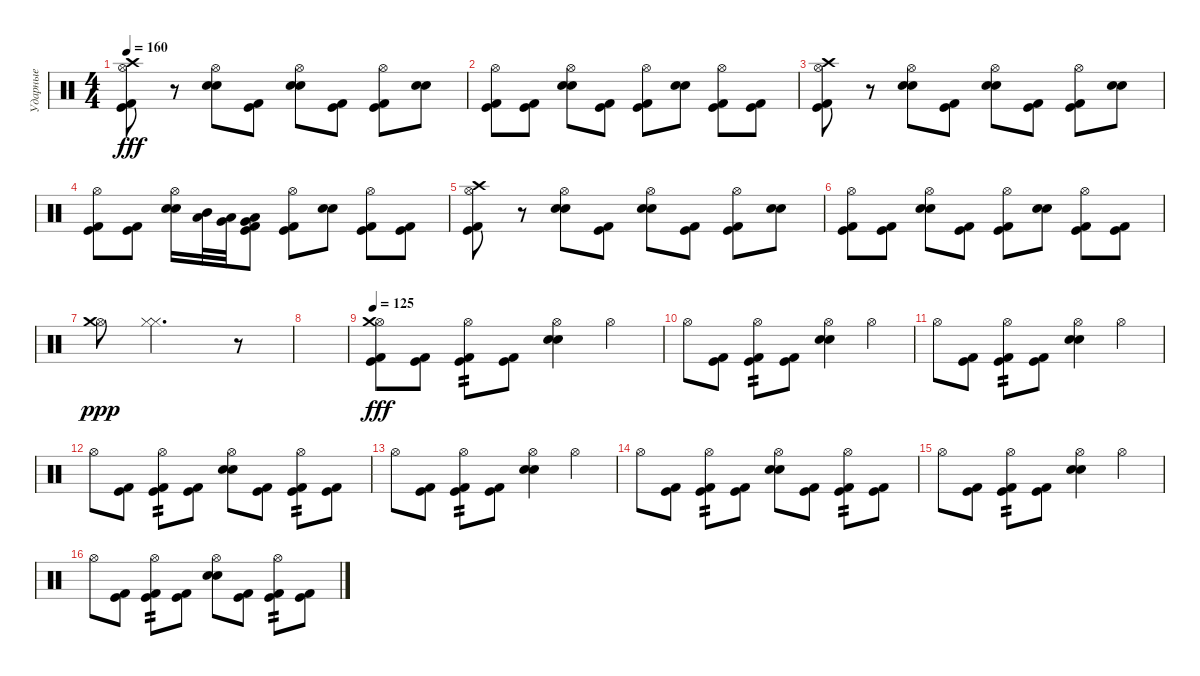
\track ("Ударные" "Ударные") {instrument percussion}
\staff {score}
\articulation defaults
\ts (4 4)
\tempo 160
\clef neutral
\ks c
("Kick (hit) 2" "Kick (hit)" "Hi-Hat (open)" "Crash high (hit)").8{dy fff} r.8 ("Snare (hit) 2" "Electric Snare (hit)" "Hi-Hat (open)").8 ("Kick (hit) 2" "Kick (hit)").8 ("Snare (hit) 2" "Electric Snare (hit)" "Hi-Hat (open)").8 ("Kick (hit) 2" "Kick (hit)").8 ("Kick (hit) 2" "Kick (hit)" "Hi-Hat (open)").8 ("Snare (hit) 2" "Electric Snare (hit)").8 |
("Kick (hit) 2" "Kick (hit)" "Hi-Hat (open)").8 ("Kick (hit) 2" "Kick (hit)").8 ("Snare (hit) 2" "Electric Snare (hit)" "Hi-Hat (open)").8 ("Kick (hit) 2" "Kick (hit)").8 ("Kick (hit) 2" "Kick (hit)" "Hi-Hat (open)").8 ("Snare (hit) 2" "Electric Snare (hit)").8 ("Kick (hit) 2" "Kick (hit)" "Hi-Hat (open)").8 ("Kick (hit) 2" "Kick (hit)").8 |
("Kick (hit) 2" "Kick (hit)" "Hi-Hat (open)" "Crash high (hit)").8 r.8 ("Snare (hit) 2" "Electric Snare (hit)" "Hi-Hat (open)").8 ("Kick (hit) 2" "Kick (hit)").8 ("Snare (hit) 2" "Electric Snare (hit)" "Hi-Hat (open)").8 ("Kick (hit) 2" "Kick (hit)").8 ("Kick (hit) 2" "Kick (hit)" "Hi-Hat (open)").8 ("Snare (hit) 2" "Electric Snare (hit)").8 |
("Kick (hit) 2" "Kick (hit)" "Hi-Hat (open)").8 ("Kick (hit) 2" "Kick (hit)").8 ("Snare (hit) 2" "Electric Snare (hit)" "Hi-Hat (open)").16 ("Low Tom (hit)" "Mid Tom (hit)").32 ("Very Low Tom (hit)" "Low Tom (hit)").32 ("Kick (hit) 2" "Kick (hit)" "Low Floor Tom (hit)" "Very Low Tom (hit)").8 ("Kick (hit) 2" "Kick (hit)" "Hi-Hat (open)").8 ("Snare (hit) 2" "Electric Snare (hit)").8 ("Kick (hit) 2" "Kick (hit)" "Hi-Hat (open)").8 ("Kick (hit) 2" "Kick (hit)").8 |
("Kick (hit) 2" "Kick (hit)" "Hi-Hat (open)" "Crash high (hit)").8 r.8 ("Snare (hit) 2" "Electric Snare (hit)" "Hi-Hat (open)").8 ("Kick (hit) 2" "Kick (hit)").8 ("Snare (hit) 2" "Electric Snare (hit)" "Hi-Hat (open)").8 ("Kick (hit) 2" "Kick (hit)").8 ("Kick (hit) 2" "Kick (hit)" "Hi-Hat (open)").8 ("Snare (hit) 2" "Electric Snare (hit)").8 |
("Kick (hit) 2" "Kick (hit)" "Hi-Hat (open)").8 ("Kick (hit) 2" "Kick (hit)").8 ("Snare (hit) 2" "Electric Snare (hit)" "Hi-Hat (open)").8 ("Kick (hit) 2" "Kick (hit)").8 ("Kick (hit) 2" "Kick (hit)" "Hi-Hat (open)").8 ("Snare (hit) 2" "Electric Snare (hit)").8 ("Kick (hit) 2" "Kick (hit)" "Hi-Hat (open)").8 ("Kick (hit) 2" "Kick (hit)").8 |
("Hi-Hat (open)" "Crash medium (hit)").8{dy ppp} ("Hi-Hat (closed)" "Hi-Hat (closed)").2{d} r.8 |
|
\tempo 125
("Kick (hit)" "Kick (hit) 2" "Hi-Hat (open)" "Crash medium (hit)").8{dy fff} ("Kick (hit)" "Kick (hit) 2").8 ("Kick (hit)" "Kick (hit) 2" "Hi-Hat (open)").8{tp 2} ("Kick (hit)" "Kick (hit) 2").8 ("Electric Snare (hit)" "Snare (hit) 2" "Hi-Hat (open)").4 "Hi-Hat (open)".4 |
"Hi-Hat (open)".8 ("Kick (hit)" "Kick (hit) 2").8 ("Kick (hit)" "Kick (hit) 2" "Hi-Hat (open)").8{tp 2} ("Kick (hit)" "Kick (hit) 2").8 ("Electric Snare (hit)" "Snare (hit) 2" "Hi-Hat (open)").4 "Hi-Hat (open)".4 |
"Hi-Hat (open)".8 ("Kick (hit)" "Kick (hit) 2").8 ("Kick (hit)" "Kick (hit) 2" "Hi-Hat (open)").8{tp 2} ("Kick (hit)" "Kick (hit) 2").8 ("Electric Snare (hit)" "Snare (hit) 2" "Hi-Hat (open)").4 "Hi-Hat (open)".4 |
"Hi-Hat (open)".8 ("Kick (hit)" "Kick (hit) 2").8 ("Kick (hit)" "Kick (hit) 2" "Hi-Hat (open)").8{tp 2} ("Kick (hit)" "Kick (hit) 2").8 ("Electric Snare (hit)" "Snare (hit) 2" "Hi-Hat (open)").8 ("Kick (hit)" "Kick (hit) 2").8 ("Kick (hit)" "Kick (hit) 2" "Hi-Hat (open)").8{tp 2} ("Kick (hit)" "Kick (hit) 2").8 |
"Hi-Hat (open)".8 ("Kick (hit)" "Kick (hit) 2").8 ("Kick (hit)" "Kick (hit) 2" "Hi-Hat (open)").8{tp 2} ("Kick (hit)" "Kick (hit) 2").8 ("Electric Snare (hit)" "Snare (hit) 2" "Hi-Hat (open)").4 "Hi-Hat (open)".4 |
"Hi-Hat (open)".8 ("Kick (hit)" "Kick (hit) 2").8 ("Kick (hit)" "Kick (hit) 2" "Hi-Hat (open)").8{tp 2} ("Kick (hit)" "Kick (hit) 2").8 ("Electric Snare (hit)" "Snare (hit) 2" "Hi-Hat (open)").8 ("Kick (hit)" "Kick (hit) 2").8 ("Kick (hit)" "Kick (hit) 2" "Hi-Hat (open)").8{tp 2} ("Kick (hit)" "Kick (hit) 2").8 |
"Hi-Hat (open)".8 ("Kick (hit)" "Kick (hit) 2").8 ("Kick (hit)" "Kick (hit) 2" "Hi-Hat (open)").8{tp 2} ("Kick (hit)" "Kick (hit) 2").8 ("Electric Snare (hit)" "Snare (hit) 2" "Hi-Hat (open)").4 "Hi-Hat (open)".4 |
"Hi-Hat (open)".8 ("Kick (hit)" "Kick (hit) 2").8 ("Kick (hit)" "Kick (hit) 2" "Hi-Hat (open)").8{tp 2} ("Kick (hit)" "Kick (hit) 2").8 ("Electric Snare (hit)" "Snare (hit) 2" "Hi-Hat (open)").8 ("Kick (hit)" "Kick (hit) 2").8 ("Kick (hit)" "Kick (hit) 2" "Hi-Hat (open)").8{tp 2} ("Kick (hit)" "Kick (hit) 2").8
